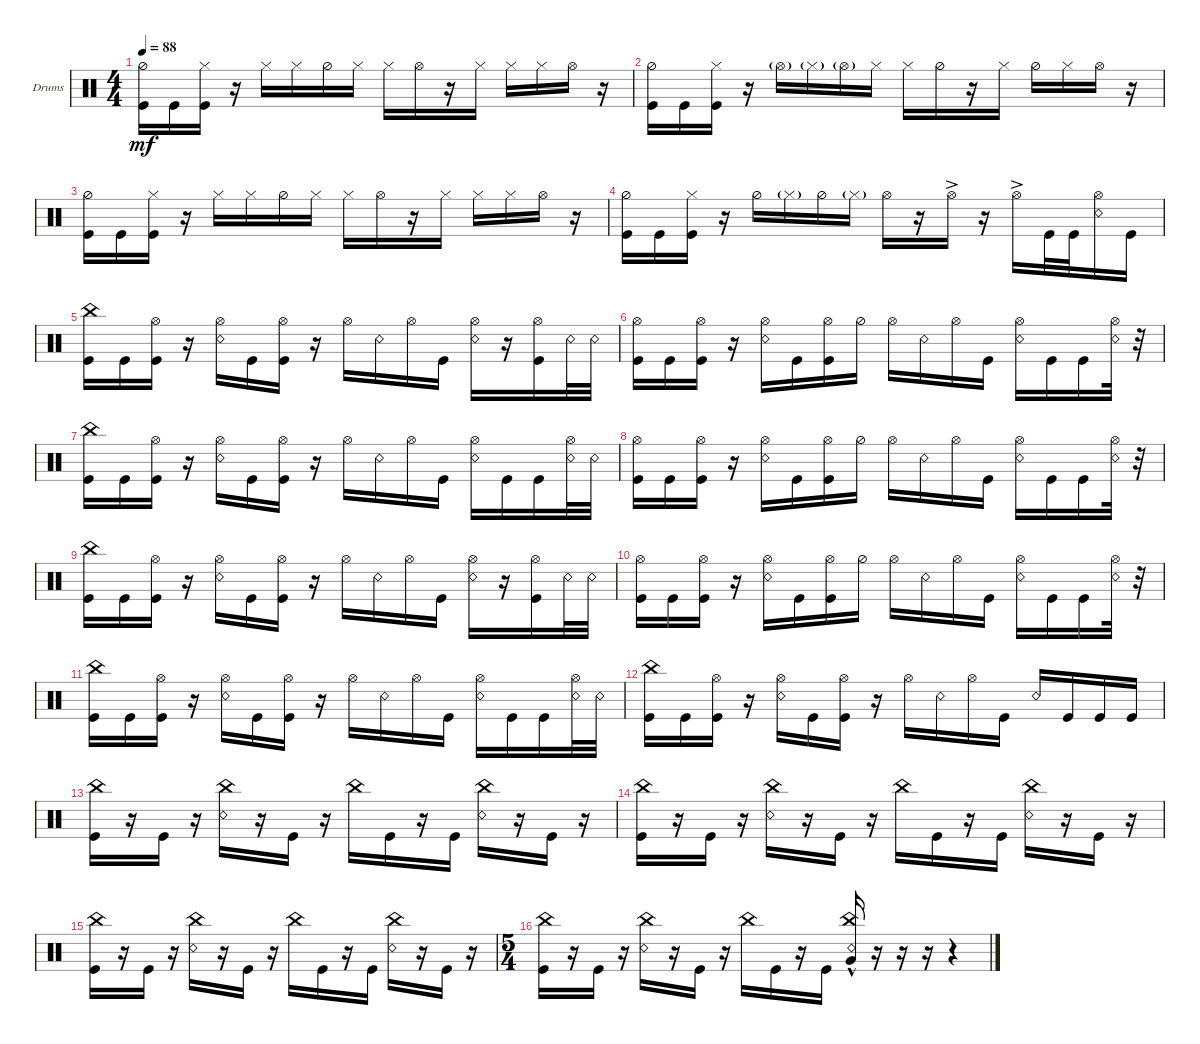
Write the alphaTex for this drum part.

\defaultSystemsLayout 4
\bracketExtendMode groupsimilarinstruments
\firstSystemTrackNameOrientation horizontal
\otherSystemsTrackNameOrientation horizontal
\track ("Drumkit" "Drums") {instrument percussion}
\staff {score}
\articulation defaults
\ts (4 4)
\scale
0.385291
\tempo 88
\accidentals auto
\clef neutral
\ottava regular
\simile none
\ks c
("Kick (hit)" "Hi-Hat (half)").16{dy mf} "Kick (hit)".16 ("Kick (hit)" "Hi-Hat (closed)").16 r.16 "Hi-Hat (closed)".16 "Hi-Hat (closed)".16 "Hi-Hat (half)".16 "Hi-Hat (closed)".16 "Hi-Hat (closed)".16 "Hi-Hat (open)".16 r.16 "Hi-Hat (closed)".16 "Hi-Hat (closed)".16 "Hi-Hat (closed)".16 "Hi-Hat (open)".16 r.16 |
\scale
0.324918 ("Kick (hit)" "Hi-Hat (half)").16 "Kick (hit)".16 ("Kick (hit)" "Hi-Hat (closed)").16 r.16 "Hi-Hat (open)"{g}.16 "Hi-Hat (closed)"{g}.16 "Hi-Hat (open)"{g}.16 "Hi-Hat (closed)".16 "Hi-Hat (closed)".16 "Hi-Hat (half)".16 r.16 "Hi-Hat (closed)".16 "Hi-Hat (half)".16 "Hi-Hat (closed)".16 "Hi-Hat (open)".16 r.16 |
\scale
0.289791 ("Kick (hit)" "Hi-Hat (half)").16 "Kick (hit)".16 ("Kick (hit)" "Hi-Hat (closed)").16 r.16 "Hi-Hat (closed)".16 "Hi-Hat (closed)".16 "Hi-Hat (half)".16 "Hi-Hat (closed)".16 "Hi-Hat (closed)".16 "Hi-Hat (open)".16 r.16 "Hi-Hat (closed)".16 "Hi-Hat (closed)".16 "Hi-Hat (closed)".16 "Hi-Hat (open)".16 r.16 |
("Kick (hit)" "Hi-Hat (half)").16 "Kick (hit)".16 ("Kick (hit)" "Hi-Hat (closed)").16 r.16 "Hi-Hat (half)".16 "Hi-Hat (closed)"{g}.16 "Hi-Hat (half)".16 "Hi-Hat (closed)"{g}.16 "Hi-Hat (open)".16 r.16 "Hi-Hat (open)"{ac}.16 r.16 "Hi-Hat (open)"{ac}.16 "Kick (hit)".32 "Kick (hit)".32 ("Hi-Hat (open)" "Snare (rim shot)").16 "Kick (hit)".16 |
("Kick (hit)" "China (hit)").16 "Kick (hit)".16 ("Kick (hit)" "Hi-Hat (open)").16 r.16 ("Snare (rim shot)" "Hi-Hat (open)").16 "Kick (hit)".16 ("Kick (hit)" "Hi-Hat (open)").16 r.16 "Hi-Hat (open)".16 "Snare (rim shot)".16 "Hi-Hat (open)".16 "Kick (hit)".16 ("Snare (rim shot)" "Hi-Hat (open)").16 r.16 ("Kick (hit)" "Hi-Hat (open)").16 "Snare (rim shot)".32 "Snare (rim shot)".32 |
("Kick (hit)" "Hi-Hat (open)").16 "Kick (hit)".16 ("Kick (hit)" "Hi-Hat (open)").16 r.16 ("Snare (rim shot)" "Hi-Hat (open)").16 "Kick (hit)".16 ("Kick (hit)" "Hi-Hat (open)").16 "Hi-Hat (half)".16 "Hi-Hat (open)".16 "Snare (rim shot)".16 "Hi-Hat (open)".16 "Kick (hit)".16 ("Snare (rim shot)" "Hi-Hat (open)").16 "Kick (hit)".16 "Kick (hit)".16 ("Snare (rim shot)" "Hi-Hat (open)").32 r.32 |
\scale
0.418893 ("Kick (hit)" "China (hit)").16 "Kick (hit)".16 ("Kick (hit)" "Hi-Hat (open)").16 r.16 ("Snare (rim shot)" "Hi-Hat (open)").16 "Kick (hit)".16 ("Kick (hit)" "Hi-Hat (open)").16 r.16 "Hi-Hat (open)".16 "Snare (rim shot)".16 "Hi-Hat (open)".16 "Kick (hit)".16 ("Snare (rim shot)" "Hi-Hat (open)").16 "Kick (hit)".16 "Kick (hit)".16 ("Snare (rim shot)" "Hi-Hat (open)").32 "Snare (rim shot)".32 |
("Kick (hit)" "Hi-Hat (open)").16 "Kick (hit)".16 ("Kick (hit)" "Hi-Hat (open)").16 r.16 ("Snare (rim shot)" "Hi-Hat (open)").16 "Kick (hit)".16 ("Kick (hit)" "Hi-Hat (open)").16 "Hi-Hat (half)".16 "Hi-Hat (open)".16 "Snare (rim shot)".16 "Hi-Hat (open)".16 "Kick (hit)".16 ("Snare (rim shot)" "Hi-Hat (open)").16 "Kick (hit)".16 "Kick (hit)".16 ("Snare (rim shot)" "Hi-Hat (open)").32 r.32 |
("Kick (hit)" "China (hit)").16 "Kick (hit)".16 ("Kick (hit)" "Hi-Hat (open)").16 r.16 ("Snare (rim shot)" "Hi-Hat (open)").16 "Kick (hit)".16 ("Kick (hit)" "Hi-Hat (open)").16 r.16 "Hi-Hat (open)".16 "Snare (rim shot)".16 "Hi-Hat (open)".16 "Kick (hit)".16 ("Snare (rim shot)" "Hi-Hat (open)").16 r.16 ("Kick (hit)" "Hi-Hat (open)").16 "Snare (rim shot)".32 "Snare (rim shot)".32 |
("Kick (hit)" "Hi-Hat (open)").16 "Kick (hit)".16 ("Kick (hit)" "Hi-Hat (open)").16 r.16 ("Snare (rim shot)" "Hi-Hat (open)").16 "Kick (hit)".16 ("Kick (hit)" "Hi-Hat (open)").16 "Hi-Hat (half)".16 "Hi-Hat (open)".16 "Snare (rim shot)".16 "Hi-Hat (open)".16 "Kick (hit)".16 ("Snare (rim shot)" "Hi-Hat (open)").16 "Kick (hit)".16 "Kick (hit)".16 ("Snare (rim shot)" "Hi-Hat (open)").32 r.32 |
("Kick (hit)" "China (hit)").16 "Kick (hit)".16 ("Kick (hit)" "Hi-Hat (open)").16 r.16 ("Snare (rim shot)" "Hi-Hat (open)").16 "Kick (hit)".16 ("Kick (hit)" "Hi-Hat (open)").16 r.16 "Hi-Hat (open)".16 "Snare (rim shot)".16 "Hi-Hat (open)".16 "Kick (hit)".16 ("Snare (rim shot)" "Hi-Hat (open)").16 "Kick (hit)".16 "Kick (hit)".16 ("Snare (rim shot)" "Hi-Hat (open)").32 "Snare (rim shot)".32 |
("Kick (hit)" "China (hit)").16 "Kick (hit)".16 ("Kick (hit)" "Hi-Hat (open)").16 r.16 ("Snare (rim shot)" "Hi-Hat (open)").16 "Kick (hit)".16 ("Kick (hit)" "Hi-Hat (open)").16 r.16 "Hi-Hat (open)".16 "Snare (rim shot)".16 "Hi-Hat (open)".16 "Kick (hit)".16 "Snare (rim shot)".16 "Kick (hit)".16 "Kick (hit)".16 "Kick (hit)".16 |
("Kick (hit)" "China (hit)").16 r.16 "Kick (hit)".16 r.16 ("Snare (rim shot)" "China (hit)").16 r.16 "Kick (hit)".16 r.16 "China (hit)".16 "Kick (hit)".16 r.16 "Kick (hit)".16 ("Snare (rim shot)" "China (hit)").16 r.16 "Kick (hit)".16 r.16 |
("Kick (hit)" "China (hit)").16 r.16 "Kick (hit)".16 r.16 ("Snare (rim shot)" "China (hit)").16 r.16 "Kick (hit)".16 r.16 "China (hit)".16 "Kick (hit)".16 r.16 "Kick (hit)".16 ("Snare (rim shot)" "China (hit)").16 r.16 "Kick (hit)".16 r.16 |
("Kick (hit)" "China (hit)").16 r.16 "Kick (hit)".16 r.16 ("Snare (rim shot)" "China (hit)").16 r.16 "Kick (hit)".16 r.16 "China (hit)".16 "Kick (hit)".16 r.16 "Kick (hit)".16 ("Snare (rim shot)" "China (hit)").16 r.16 "Kick (hit)".16 r.16 |
\ts (5 4)
("Kick (hit)" "China (hit)").16 r.16 "Kick (hit)".16 r.16 ("Snare (rim shot)" "China (hit)").16 r.16 "Kick (hit)".16 r.16 "China (hit)".16 "Kick (hit)".16 r.16 "Kick (hit)".16 ("Snare (rim shot)" "China (hit)" "Very Low Tom (hit)"{hac}).16 r.16 r.16 r.16 r.4
